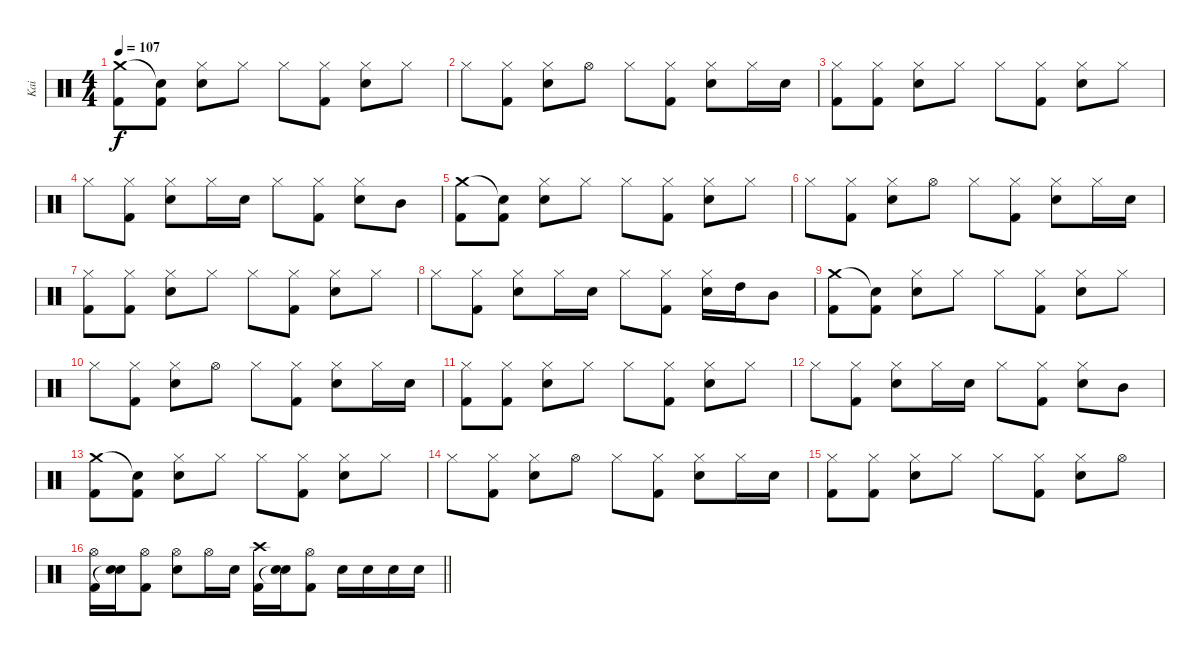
\track ("Kai" "Kai") {instrument percussion}
\staff {score}
\articulation defaults
\ts (4 4)
\tempo 107
\clef neutral
\ks c
("Crash medium (hit)" "Kick (hit) 2").8{dy f} ("Snare (hit)"{t} "Kick (hit) 2").8 ("Hi-Hat (closed)" "Snare (hit) 2").8 "Hi-Hat (closed)".8 "Hi-Hat (closed)".8 ("Hi-Hat (closed)" "Kick (hit) 2").8 ("Hi-Hat (closed)" "Snare (hit) 2").8 "Hi-Hat (closed)".8 |
"Hi-Hat (closed)".8 ("Hi-Hat (closed)" "Kick (hit) 2").8 ("Hi-Hat (closed)" "Snare (hit) 2").8 "Hi-Hat (open)".8 "Hi-Hat (closed)".8 ("Hi-Hat (closed)" "Kick (hit) 2").8 ("Hi-Hat (closed)" "Snare (hit) 2").8 "Hi-Hat (closed)".16 "Snare (hit) 2".16 |
("Hi-Hat (closed)" "Kick (hit) 2").8 ("Hi-Hat (closed)" "Kick (hit) 2").8 ("Hi-Hat (closed)" "Snare (hit) 2").8 "Hi-Hat (closed)".8 "Hi-Hat (closed)".8 ("Hi-Hat (closed)" "Kick (hit) 2").8 ("Hi-Hat (closed)" "Snare (hit) 2").8 "Hi-Hat (closed)".8 |
"Hi-Hat (closed)".8 ("Hi-Hat (closed)" "Kick (hit) 2").8 ("Hi-Hat (closed)" "Snare (hit) 2").8 "Hi-Hat (closed)".16 "Snare (hit) 2".16 "Hi-Hat (closed)".8 ("Hi-Hat (closed)" "Kick (hit) 2").8 ("Hi-Hat (closed)" "Snare (hit) 2").8 "Mid Tom (hit)".8 |
("Crash medium (hit)" "Kick (hit) 2").8 ("Snare (hit)"{t} "Kick (hit) 2").8 ("Hi-Hat (closed)" "Snare (hit) 2").8 "Hi-Hat (closed)".8 "Hi-Hat (closed)".8 ("Hi-Hat (closed)" "Kick (hit) 2").8 ("Hi-Hat (closed)" "Snare (hit) 2").8 "Hi-Hat (closed)".8 |
"Hi-Hat (closed)".8 ("Hi-Hat (closed)" "Kick (hit) 2").8 ("Hi-Hat (closed)" "Snare (hit) 2").8 "Hi-Hat (open)".8 "Hi-Hat (closed)".8 ("Hi-Hat (closed)" "Kick (hit) 2").8 ("Hi-Hat (closed)" "Snare (hit) 2").8 "Hi-Hat (closed)".16 "Snare (hit) 2".16 |
("Hi-Hat (closed)" "Kick (hit) 2").8 ("Hi-Hat (closed)" "Kick (hit) 2").8 ("Hi-Hat (closed)" "Snare (hit) 2").8 "Hi-Hat (closed)".8 "Hi-Hat (closed)".8 ("Hi-Hat (closed)" "Kick (hit) 2").8 ("Hi-Hat (closed)" "Snare (hit) 2").8 "Hi-Hat (closed)".8 |
"Hi-Hat (closed)".8 ("Hi-Hat (closed)" "Kick (hit) 2").8 ("Hi-Hat (closed)" "Snare (hit) 2").8 "Hi-Hat (closed)".16 "Snare (hit) 2".16 "Hi-Hat (closed)".8 ("Hi-Hat (closed)" "Kick (hit) 2").8 ("Hi-Hat (closed)" "Snare (hit) 2").16 "High Tom (hit)".16 "Mid Tom (hit)".8 |
("Crash medium (hit)" "Kick (hit) 2").8 ("Snare (hit)"{t} "Kick (hit) 2").8 ("Hi-Hat (closed)" "Snare (hit) 2").8 "Hi-Hat (closed)".8 "Hi-Hat (closed)".8 ("Hi-Hat (closed)" "Kick (hit) 2").8 ("Hi-Hat (closed)" "Snare (hit) 2").8 "Hi-Hat (closed)".8 |
"Hi-Hat (closed)".8 ("Hi-Hat (closed)" "Kick (hit) 2").8 ("Hi-Hat (closed)" "Snare (hit) 2").8 "Hi-Hat (open)".8 "Hi-Hat (closed)".8 ("Hi-Hat (closed)" "Kick (hit) 2").8 ("Hi-Hat (closed)" "Snare (hit) 2").8 "Hi-Hat (closed)".16 "Snare (hit) 2".16 |
("Hi-Hat (closed)" "Kick (hit) 2").8 ("Hi-Hat (closed)" "Kick (hit) 2").8 ("Hi-Hat (closed)" "Snare (hit) 2").8 "Hi-Hat (closed)".8 "Hi-Hat (closed)".8 ("Hi-Hat (closed)" "Kick (hit) 2").8 ("Hi-Hat (closed)" "Snare (hit) 2").8 "Hi-Hat (closed)".8 |
"Hi-Hat (closed)".8 ("Hi-Hat (closed)" "Kick (hit) 2").8 ("Hi-Hat (closed)" "Snare (hit) 2").8 "Hi-Hat (closed)".16 "Snare (hit) 2".16 "Hi-Hat (closed)".8 ("Hi-Hat (closed)" "Kick (hit) 2").8 ("Hi-Hat (closed)" "Snare (hit) 2").8 "Mid Tom (hit)".8 |
("Crash medium (hit)" "Kick (hit) 2").8 ("Snare (hit)"{t} "Kick (hit) 2").8 ("Hi-Hat (closed)" "Snare (hit) 2").8 "Hi-Hat (closed)".8 "Hi-Hat (closed)".8 ("Hi-Hat (closed)" "Kick (hit) 2").8 ("Hi-Hat (closed)" "Snare (hit) 2").8 "Hi-Hat (closed)".8 |
"Hi-Hat (closed)".8 ("Hi-Hat (closed)" "Kick (hit) 2").8 ("Hi-Hat (closed)" "Snare (hit) 2").8 "Hi-Hat (open)".8 "Hi-Hat (closed)".8 ("Hi-Hat (closed)" "Kick (hit) 2").8 ("Hi-Hat (closed)" "Snare (hit) 2").8 "Hi-Hat (closed)".16 "Snare (hit) 2".16 |
("Hi-Hat (closed)" "Kick (hit) 2").8 ("Hi-Hat (closed)" "Kick (hit) 2").8 ("Hi-Hat (closed)" "Snare (hit) 2").8 "Hi-Hat (closed)".8 "Hi-Hat (closed)".8 ("Hi-Hat (closed)" "Kick (hit) 2").8 ("Hi-Hat (closed)" "Snare (hit) 2").8 "Hi-Hat (open)".8 |
\barLineRight lightlight
("Hi-Hat (open)" "Kick (hit) 2").16 ("Snare (hit) 2" "Snare (hit)"{t}).16 ("Hi-Hat (open)" "Kick (hit) 2").8 ("Hi-Hat (open)" "Snare (hit) 2").8 "Hi-Hat (open)".16 "Snare (hit) 2".16 ("Crash high (hit)" "Kick (hit) 2").16 ("Snare (hit) 2" "Snare (hit)"{t}).16 ("Hi-Hat (open)" "Kick (hit) 2").8 "Snare (hit) 2".16 "Snare (hit) 2".16 "Snare (hit) 2".16 "Snare (hit) 2".16
